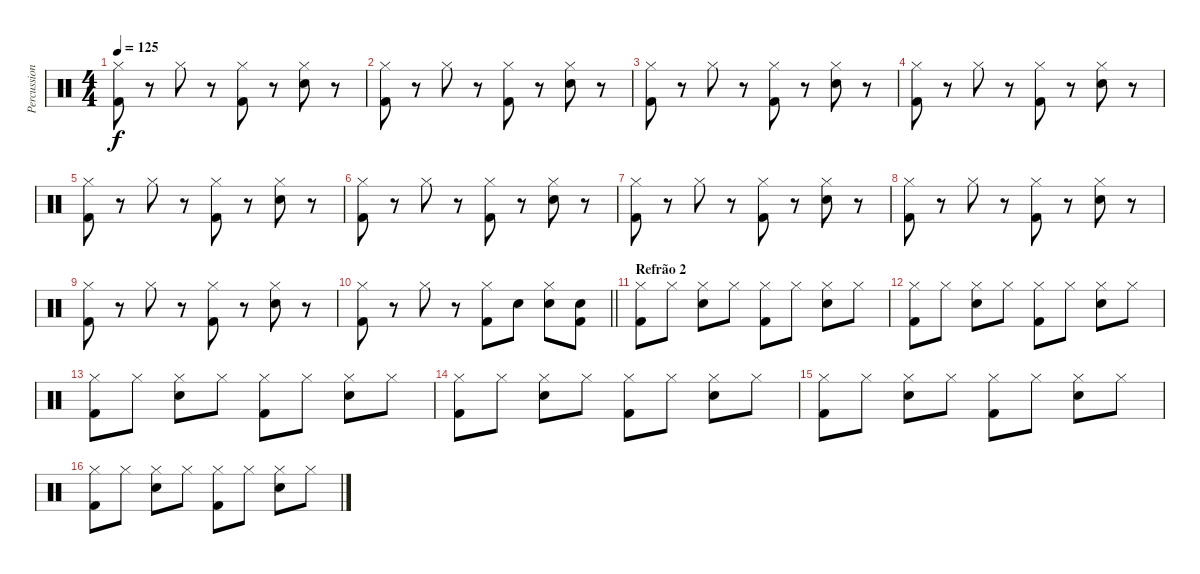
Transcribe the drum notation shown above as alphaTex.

\track ("Percussion" "Percussion") {instrument percussion}
\staff {score}
\articulation defaults
\ts (4 4)
\tempo 125
\clef neutral
\ks c
("Kick (hit) 2" "Hi-Hat (closed)").8{dy f} r.8 "Hi-Hat (closed)".8 r.8 ("Kick (hit) 2" "Hi-Hat (closed)").8 r.8 ("Electric Snare (hit)" "Hi-Hat (closed)").8 r.8 |
("Kick (hit) 2" "Hi-Hat (closed)").8 r.8 "Hi-Hat (closed)".8 r.8 ("Kick (hit) 2" "Hi-Hat (closed)").8 r.8 ("Electric Snare (hit)" "Hi-Hat (closed)").8 r.8 |
("Kick (hit) 2" "Hi-Hat (closed)").8 r.8 "Hi-Hat (closed)".8 r.8 ("Kick (hit) 2" "Hi-Hat (closed)").8 r.8 ("Electric Snare (hit)" "Hi-Hat (closed)").8 r.8 |
("Kick (hit) 2" "Hi-Hat (closed)").8 r.8 "Hi-Hat (closed)".8 r.8 ("Kick (hit) 2" "Hi-Hat (closed)").8 r.8 ("Electric Snare (hit)" "Hi-Hat (closed)").8 r.8 |
("Kick (hit) 2" "Hi-Hat (closed)").8 r.8 "Hi-Hat (closed)".8 r.8 ("Kick (hit) 2" "Hi-Hat (closed)").8 r.8 ("Electric Snare (hit)" "Hi-Hat (closed)").8 r.8 |
("Kick (hit) 2" "Hi-Hat (closed)").8 r.8 "Hi-Hat (closed)".8 r.8 ("Kick (hit) 2" "Hi-Hat (closed)").8 r.8 ("Electric Snare (hit)" "Hi-Hat (closed)").8 r.8 |
("Kick (hit) 2" "Hi-Hat (closed)").8 r.8 "Hi-Hat (closed)".8 r.8 ("Kick (hit) 2" "Hi-Hat (closed)").8 r.8 ("Electric Snare (hit)" "Hi-Hat (closed)").8 r.8 |
("Kick (hit) 2" "Hi-Hat (closed)").8 r.8 "Hi-Hat (closed)".8 r.8 ("Kick (hit) 2" "Hi-Hat (closed)").8 r.8 ("Electric Snare (hit)" "Hi-Hat (closed)").8 r.8 |
("Kick (hit) 2" "Hi-Hat (closed)").8 r.8 "Hi-Hat (closed)".8 r.8 ("Kick (hit) 2" "Hi-Hat (closed)").8 r.8 ("Electric Snare (hit)" "Hi-Hat (closed)").8 r.8 |
\barLineRight lightlight
("Kick (hit) 2" "Hi-Hat (closed)").8 r.8 "Hi-Hat (closed)".8 r.8 ("Kick (hit) 2" "Hi-Hat (closed)").8 "Electric Snare (hit)".8 ("Electric Snare (hit)" "Hi-Hat (closed)").8 ("Electric Snare (hit)" "Kick (hit) 2").8 |
\section ("" "Refrão 2")
("Kick (hit) 2" "Hi-Hat (closed)").8 "Hi-Hat (closed)".8 ("Electric Snare (hit)" "Hi-Hat (closed)").8 "Hi-Hat (closed)".8 ("Kick (hit) 2" "Hi-Hat (closed)").8 "Hi-Hat (closed)".8 ("Electric Snare (hit)" "Hi-Hat (closed)").8 "Hi-Hat (closed)".8 |
("Kick (hit) 2" "Hi-Hat (closed)").8 "Hi-Hat (closed)".8 ("Electric Snare (hit)" "Hi-Hat (closed)").8 "Hi-Hat (closed)".8 ("Kick (hit) 2" "Hi-Hat (closed)").8 "Hi-Hat (closed)".8 ("Electric Snare (hit)" "Hi-Hat (closed)").8 "Hi-Hat (closed)".8 |
("Kick (hit) 2" "Hi-Hat (closed)").8 "Hi-Hat (closed)".8 ("Electric Snare (hit)" "Hi-Hat (closed)").8 "Hi-Hat (closed)".8 ("Kick (hit) 2" "Hi-Hat (closed)").8 "Hi-Hat (closed)".8 ("Electric Snare (hit)" "Hi-Hat (closed)").8 "Hi-Hat (closed)".8 |
("Kick (hit) 2" "Hi-Hat (closed)").8 "Hi-Hat (closed)".8 ("Electric Snare (hit)" "Hi-Hat (closed)").8 "Hi-Hat (closed)".8 ("Kick (hit) 2" "Hi-Hat (closed)").8 "Hi-Hat (closed)".8 ("Electric Snare (hit)" "Hi-Hat (closed)").8 "Hi-Hat (closed)".8 |
("Kick (hit) 2" "Hi-Hat (closed)").8 "Hi-Hat (closed)".8 ("Electric Snare (hit)" "Hi-Hat (closed)").8 "Hi-Hat (closed)".8 ("Kick (hit) 2" "Hi-Hat (closed)").8 "Hi-Hat (closed)".8 ("Electric Snare (hit)" "Hi-Hat (closed)").8 "Hi-Hat (closed)".8 |
("Kick (hit) 2" "Hi-Hat (closed)").8 "Hi-Hat (closed)".8 ("Electric Snare (hit)" "Hi-Hat (closed)").8 "Hi-Hat (closed)".8 ("Kick (hit) 2" "Hi-Hat (closed)").8 "Hi-Hat (closed)".8 ("Electric Snare (hit)" "Hi-Hat (closed)").8 "Hi-Hat (closed)".8
